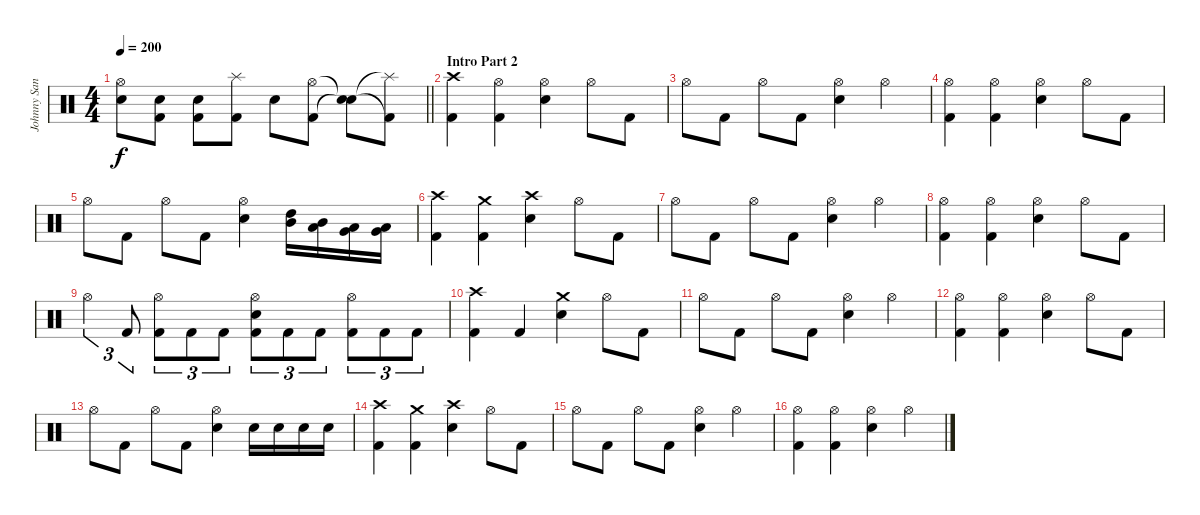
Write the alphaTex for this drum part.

\track ("Johnny Sandin" "Johnny San") {instrument percussion}
\staff {score}
\articulation defaults
\ts (4 4)
\tempo 200
\clef neutral
\barLineRight lightlight
\ks c
("Hi-Hat (open)" "Snare (hit)"{t}).8{dy f} ("Snare (hit) 2" "Kick (hit) 2").8 ("Snare (hit) 2" "Kick (hit) 2").8 ("Splash (hit)" "Kick (hit) 2").8 "Snare (hit) 2".8 ("Hi-Hat (open)" "Kick (hit) 2").8 ("Snare (hit)"{t} "Snare (hit)"{t}).8 ("Splash (hit)"{t} "Kick (hit) 2"{t}).8 |
\section ("" "Intro Part 2")
("Crash high (hit)" "Kick (hit) 2").4 ("Hi-Hat (open)" "Kick (hit) 2").4 ("Hi-Hat (open)" "Snare (hit) 2").4 "Hi-Hat (open)".8 "Kick (hit) 2".8 |
"Hi-Hat (open)".8 "Kick (hit) 2".8 "Hi-Hat (open)".8 "Kick (hit) 2".8 ("Hi-Hat (open)" "Snare (hit) 2").4 "Hi-Hat (open)".4 |
("Hi-Hat (open)" "Kick (hit) 2").4 ("Hi-Hat (open)" "Kick (hit) 2").4 ("Hi-Hat (open)" "Snare (hit) 2").4 "Hi-Hat (open)".8 "Kick (hit) 2".8 |
"Hi-Hat (open)".8 "Kick (hit) 2".8 "Hi-Hat (open)".8 "Kick (hit) 2".8 ("Hi-Hat (open)" "Snare (hit) 2").4 ("High Tom (hit)" "Mid Tom (hit)").16 ("Mid Tom (hit)" "Low Tom (hit)").16 ("Low Tom (hit)" "Very Low Tom (hit)").16 ("Very Low Tom (hit)" "Low Floor Tom (hit)").16 |
("Crash high (hit)" "Kick (hit) 2").4 ("Crash medium (hit)" "Kick (hit) 2").4 ("Crash high (hit)" "Snare (hit) 2").4 "Hi-Hat (open)".8 "Kick (hit) 2".8 |
"Hi-Hat (open)".8 "Kick (hit) 2".8 "Hi-Hat (open)".8 "Kick (hit) 2".8 ("Hi-Hat (open)" "Snare (hit) 2").4 "Hi-Hat (open)".4 |
("Hi-Hat (open)" "Kick (hit) 2").4 ("Hi-Hat (open)" "Kick (hit) 2").4 ("Hi-Hat (open)" "Snare (hit) 2").4 "Hi-Hat (open)".8 "Kick (hit) 2".8 |
"Hi-Hat (open)".4{tu (3 2)} "Kick (hit) 2".8{tu (3 2)} ("Hi-Hat (open)" "Kick (hit) 2").8{tu (3 2)} "Kick (hit) 2".8{tu (3 2)} "Kick (hit) 2".8{tu (3 2)} ("Hi-Hat (open)" "Snare (hit) 2" "Kick (hit) 2").8{tu (3 2)} "Kick (hit) 2".8{tu (3 2)} "Kick (hit) 2".8{tu (3 2)} ("Hi-Hat (open)" "Kick (hit) 2").8{tu (3 2)} "Kick (hit) 2".8{tu (3 2)} "Kick (hit) 2".8{tu (3 2)} |
("Crash high (hit)" "Kick (hit) 2").4 "Kick (hit) 2".4 ("Crash medium (hit)" "Snare (hit) 2").4 "Hi-Hat (open)".8 "Kick (hit) 2".8 |
"Hi-Hat (open)".8 "Kick (hit) 2".8 "Hi-Hat (open)".8 "Kick (hit) 2".8 ("Hi-Hat (open)" "Snare (hit) 2").4 "Hi-Hat (open)".4 |
("Hi-Hat (open)" "Kick (hit) 2").4 ("Hi-Hat (open)" "Kick (hit) 2").4 ("Hi-Hat (open)" "Snare (hit) 2").4 "Hi-Hat (open)".8 "Kick (hit) 2".8 |
"Hi-Hat (open)".8 "Kick (hit) 2".8 "Hi-Hat (open)".8 "Kick (hit) 2".8 ("Hi-Hat (open)" "Snare (hit) 2").4 "Snare (hit) 2".16 "Snare (hit) 2".16 "Snare (hit) 2".16 "Snare (hit) 2".16 |
("Crash high (hit)" "Kick (hit) 2").4 ("Crash medium (hit)" "Kick (hit) 2").4 ("Crash high (hit)" "Snare (hit) 2").4 "Hi-Hat (open)".8 "Kick (hit) 2".8 |
"Hi-Hat (open)".8 "Kick (hit) 2".8 "Hi-Hat (open)".8 "Kick (hit) 2".8 ("Hi-Hat (open)" "Snare (hit) 2").4 "Hi-Hat (open)".4 |
("Hi-Hat (open)" "Kick (hit) 2").4 ("Hi-Hat (open)" "Kick (hit) 2").4 ("Hi-Hat (open)" "Snare (hit) 2").4 "Hi-Hat (open)".4
